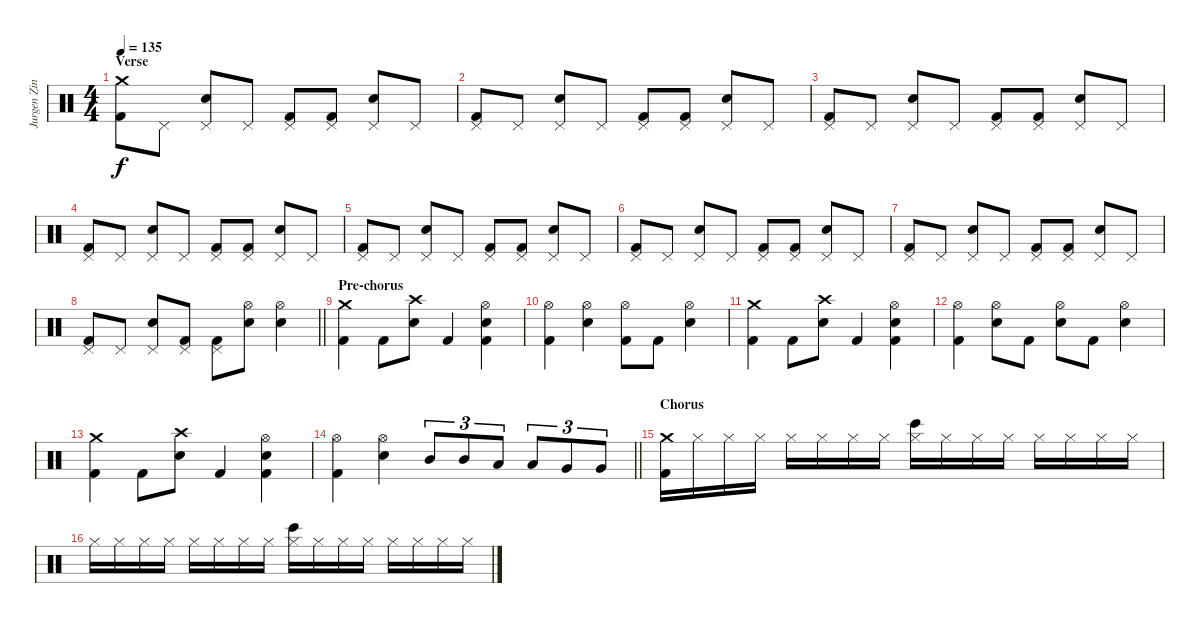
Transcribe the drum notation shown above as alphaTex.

\track ("Jurgen Zing" "Jurgen Zin") {instrument percussion}
\staff {score}
\articulation defaults
\ts (4 4)
\section ("" "Verse")
\tempo 135
\clef neutral
\ks c
("Crash medium (hit)" "Kick (hit) 2").8{dy f} "Pedal Hi-Hat (hit)".8 ("Pedal Hi-Hat (hit)" "Electric Snare (hit)").8 "Pedal Hi-Hat (hit)".8 ("Pedal Hi-Hat (hit)" "Kick (hit) 2").8 ("Pedal Hi-Hat (hit)" "Kick (hit) 2").8 ("Pedal Hi-Hat (hit)" "Electric Snare (hit)").8 "Pedal Hi-Hat (hit)".8 |
("Pedal Hi-Hat (hit)" "Kick (hit) 2").8 "Pedal Hi-Hat (hit)".8 ("Pedal Hi-Hat (hit)" "Electric Snare (hit)").8 "Pedal Hi-Hat (hit)".8 ("Pedal Hi-Hat (hit)" "Kick (hit) 2").8 ("Pedal Hi-Hat (hit)" "Kick (hit) 2").8 ("Pedal Hi-Hat (hit)" "Electric Snare (hit)").8 "Pedal Hi-Hat (hit)".8 |
("Pedal Hi-Hat (hit)" "Kick (hit) 2").8 "Pedal Hi-Hat (hit)".8 ("Pedal Hi-Hat (hit)" "Electric Snare (hit)").8 "Pedal Hi-Hat (hit)".8 ("Pedal Hi-Hat (hit)" "Kick (hit) 2").8 ("Pedal Hi-Hat (hit)" "Kick (hit) 2").8 ("Pedal Hi-Hat (hit)" "Electric Snare (hit)").8 "Pedal Hi-Hat (hit)".8 |
("Pedal Hi-Hat (hit)" "Kick (hit) 2").8 "Pedal Hi-Hat (hit)".8 ("Pedal Hi-Hat (hit)" "Electric Snare (hit)").8 "Pedal Hi-Hat (hit)".8 ("Pedal Hi-Hat (hit)" "Kick (hit) 2").8 ("Pedal Hi-Hat (hit)" "Kick (hit) 2").8 ("Pedal Hi-Hat (hit)" "Electric Snare (hit)").8 "Pedal Hi-Hat (hit)".8 |
("Pedal Hi-Hat (hit)" "Kick (hit) 2").8 "Pedal Hi-Hat (hit)".8 ("Pedal Hi-Hat (hit)" "Electric Snare (hit)").8 "Pedal Hi-Hat (hit)".8 ("Pedal Hi-Hat (hit)" "Kick (hit) 2").8 ("Pedal Hi-Hat (hit)" "Kick (hit) 2").8 ("Pedal Hi-Hat (hit)" "Electric Snare (hit)").8 "Pedal Hi-Hat (hit)".8 |
("Pedal Hi-Hat (hit)" "Kick (hit) 2").8 "Pedal Hi-Hat (hit)".8 ("Pedal Hi-Hat (hit)" "Electric Snare (hit)").8 "Pedal Hi-Hat (hit)".8 ("Pedal Hi-Hat (hit)" "Kick (hit) 2").8 ("Pedal Hi-Hat (hit)" "Kick (hit) 2").8 ("Pedal Hi-Hat (hit)" "Electric Snare (hit)").8 "Pedal Hi-Hat (hit)".8 |
("Pedal Hi-Hat (hit)" "Kick (hit) 2").8 "Pedal Hi-Hat (hit)".8 ("Pedal Hi-Hat (hit)" "Electric Snare (hit)").8 "Pedal Hi-Hat (hit)".8 ("Pedal Hi-Hat (hit)" "Kick (hit) 2").8 ("Pedal Hi-Hat (hit)" "Kick (hit) 2").8 ("Pedal Hi-Hat (hit)" "Electric Snare (hit)").8 "Pedal Hi-Hat (hit)".8 |
\barLineRight lightlight
("Pedal Hi-Hat (hit)" "Kick (hit) 2").8 "Pedal Hi-Hat (hit)".8 ("Pedal Hi-Hat (hit)" "Electric Snare (hit)").8 ("Pedal Hi-Hat (hit)" "Kick (hit) 2").8 ("Pedal Hi-Hat (hit)" "Kick (hit) 2").8 ("Hi-Hat (open)" "Electric Snare (hit)").8 ("Hi-Hat (open)" "Electric Snare (hit)").4 |
\section ("" "Pre-chorus")
("Crash medium (hit)" "Kick (hit) 2").4 "Kick (hit) 2".8 ("Crash high (hit)" "Electric Snare (hit)").8 "Kick (hit) 2".4 ("Hi-Hat (open)" "Electric Snare (hit)" "Kick (hit) 2").4 |
("Hi-Hat (open)" "Kick (hit) 2").4 ("Hi-Hat (open)" "Electric Snare (hit)").4 ("Hi-Hat (open)" "Kick (hit) 2").8 "Kick (hit) 2".8 ("Hi-Hat (open)" "Electric Snare (hit)").4 |
("Crash medium (hit)" "Kick (hit) 2").4 "Kick (hit) 2".8 ("Crash high (hit)" "Electric Snare (hit)").8 "Kick (hit) 2".4 ("Hi-Hat (open)" "Electric Snare (hit)" "Kick (hit) 2").4 |
("Hi-Hat (open)" "Kick (hit) 2").4 ("Hi-Hat (open)" "Electric Snare (hit)").8 "Kick (hit) 2".8 ("Hi-Hat (open)" "Electric Snare (hit)").8 "Kick (hit) 2".8 ("Hi-Hat (open)" "Electric Snare (hit)").4 |
("Crash medium (hit)" "Kick (hit) 2").4 "Kick (hit) 2".8 ("Crash high (hit)" "Electric Snare (hit)").8 "Kick (hit) 2".4 ("Hi-Hat (open)" "Electric Snare (hit)" "Kick (hit) 2").4 |
\barLineRight lightlight
("Hi-Hat (open)" "Kick (hit) 2").4 ("Hi-Hat (open)" "Electric Snare (hit)").4 "Mid Tom (hit)".8{tu (3 2)} "Mid Tom (hit)".8{tu (3 2)} "Low Tom (hit)".8{tu (3 2)} "Low Tom (hit)".8{tu (3 2)} "Very Low Tom (hit)".8{tu (3 2)} "Very Low Tom (hit)".8{tu (3 2)} |
\section ("" "Chorus")
("Crash medium (hit)" "Kick (hit) 2").16 "Hi-Hat (closed)".16 "Hi-Hat (closed)".16 "Hi-Hat (closed)".16 "Hi-Hat (closed)".16 "Hi-Hat (closed)".16 "Hi-Hat (closed)".16 "Hi-Hat (closed)".16 ("Hi-Hat (closed)" "Bongo High (hit)").16 "Hi-Hat (closed)".16 "Hi-Hat (closed)".16 "Hi-Hat (closed)".16 "Hi-Hat (closed)".16 "Hi-Hat (closed)".16 "Hi-Hat (closed)".16 "Hi-Hat (closed)".16 |
"Hi-Hat (closed)".16 "Hi-Hat (closed)".16 "Hi-Hat (closed)".16 "Hi-Hat (closed)".16 "Hi-Hat (closed)".16 "Hi-Hat (closed)".16 "Hi-Hat (closed)".16 "Hi-Hat (closed)".16 ("Hi-Hat (closed)" "Bongo High (hit)").16 "Hi-Hat (closed)".16 "Hi-Hat (closed)".16 "Hi-Hat (closed)".16 "Hi-Hat (closed)".16 "Hi-Hat (closed)".16 "Hi-Hat (closed)".16 "Hi-Hat (closed)".16
